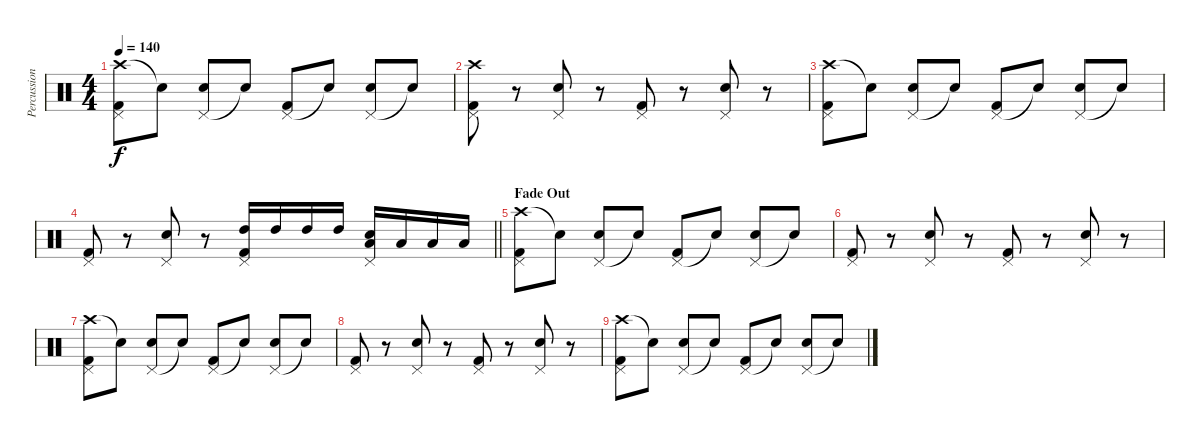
\track ("Percussion" "Percussion") {instrument percussion}
\staff {score}
\articulation defaults
\ts (4 4)
\tempo 140
\clef neutral
\ks c
("Crash high (hit)" "Pedal Hi-Hat (hit)" "Kick (hit) 2").8{dy f} "Snare (hit)"{t}.8 ("Pedal Hi-Hat (hit)" "Electric Snare (hit)").8 "Snare (hit)"{t}.8 ("Pedal Hi-Hat (hit)" "Kick (hit) 2").8 "Snare (hit)"{t}.8 ("Pedal Hi-Hat (hit)" "Electric Snare (hit)").8 "Snare (hit)"{t}.8 |
("Crash high (hit)" "Pedal Hi-Hat (hit)" "Kick (hit) 2").8 r.8 ("Pedal Hi-Hat (hit)" "Electric Snare (hit)").8 r.8 ("Pedal Hi-Hat (hit)" "Kick (hit) 2").8 r.8 ("Pedal Hi-Hat (hit)" "Electric Snare (hit)").8 r.8 |
("Crash high (hit)" "Pedal Hi-Hat (hit)" "Kick (hit) 2").8 "Snare (hit)"{t}.8 ("Pedal Hi-Hat (hit)" "Electric Snare (hit)").8 "Snare (hit)"{t}.8 ("Pedal Hi-Hat (hit)" "Kick (hit) 2").8 "Snare (hit)"{t}.8 ("Pedal Hi-Hat (hit)" "Electric Snare (hit)").8 "Snare (hit)"{t}.8 |
\barLineRight lightlight
("Pedal Hi-Hat (hit)" "Kick (hit) 2").8 r.8 ("Pedal Hi-Hat (hit)" "Electric Snare (hit)").8 r.8 ("High Tom (hit)" "Pedal Hi-Hat (hit)" "Kick (hit) 2").16 "High Tom (hit)".16 "High Tom (hit)".16 "High Tom (hit)".16 ("Low Tom (hit)" "Pedal Hi-Hat (hit)" "Electric Snare (hit)").16 "Low Tom (hit)".16 "Low Tom (hit)".16 "Low Tom (hit)".16 |
\section ("" "Fade Out")
("Crash high (hit)" "Pedal Hi-Hat (hit)" "Kick (hit) 2").8 "Snare (hit)"{t}.8 ("Pedal Hi-Hat (hit)" "Electric Snare (hit)").8 "Snare (hit)"{t}.8 ("Pedal Hi-Hat (hit)" "Kick (hit) 2").8 "Snare (hit)"{t}.8 ("Pedal Hi-Hat (hit)" "Electric Snare (hit)").8 "Snare (hit)"{t}.8 |
("Pedal Hi-Hat (hit)" "Kick (hit) 2").8 r.8 ("Pedal Hi-Hat (hit)" "Electric Snare (hit)").8 r.8 ("Pedal Hi-Hat (hit)" "Kick (hit) 2").8 r.8 ("Pedal Hi-Hat (hit)" "Electric Snare (hit)").8 r.8 |
("Crash high (hit)" "Pedal Hi-Hat (hit)" "Kick (hit) 2").8 "Snare (hit)"{t}.8 ("Pedal Hi-Hat (hit)" "Electric Snare (hit)").8 "Snare (hit)"{t}.8 ("Pedal Hi-Hat (hit)" "Kick (hit) 2").8 "Snare (hit)"{t}.8 ("Pedal Hi-Hat (hit)" "Electric Snare (hit)").8 "Snare (hit)"{t}.8 |
("Pedal Hi-Hat (hit)" "Kick (hit) 2").8 r.8 ("Pedal Hi-Hat (hit)" "Electric Snare (hit)").8 r.8 ("Pedal Hi-Hat (hit)" "Kick (hit) 2").8 r.8 ("Pedal Hi-Hat (hit)" "Electric Snare (hit)").8 r.8 |
("Crash high (hit)" "Pedal Hi-Hat (hit)" "Kick (hit) 2").8 "Snare (hit)"{t}.8 ("Pedal Hi-Hat (hit)" "Electric Snare (hit)").8 "Snare (hit)"{t}.8 ("Pedal Hi-Hat (hit)" "Kick (hit) 2").8 "Snare (hit)"{t}.8 ("Pedal Hi-Hat (hit)" "Electric Snare (hit)").8 "Snare (hit)"{t}.8
